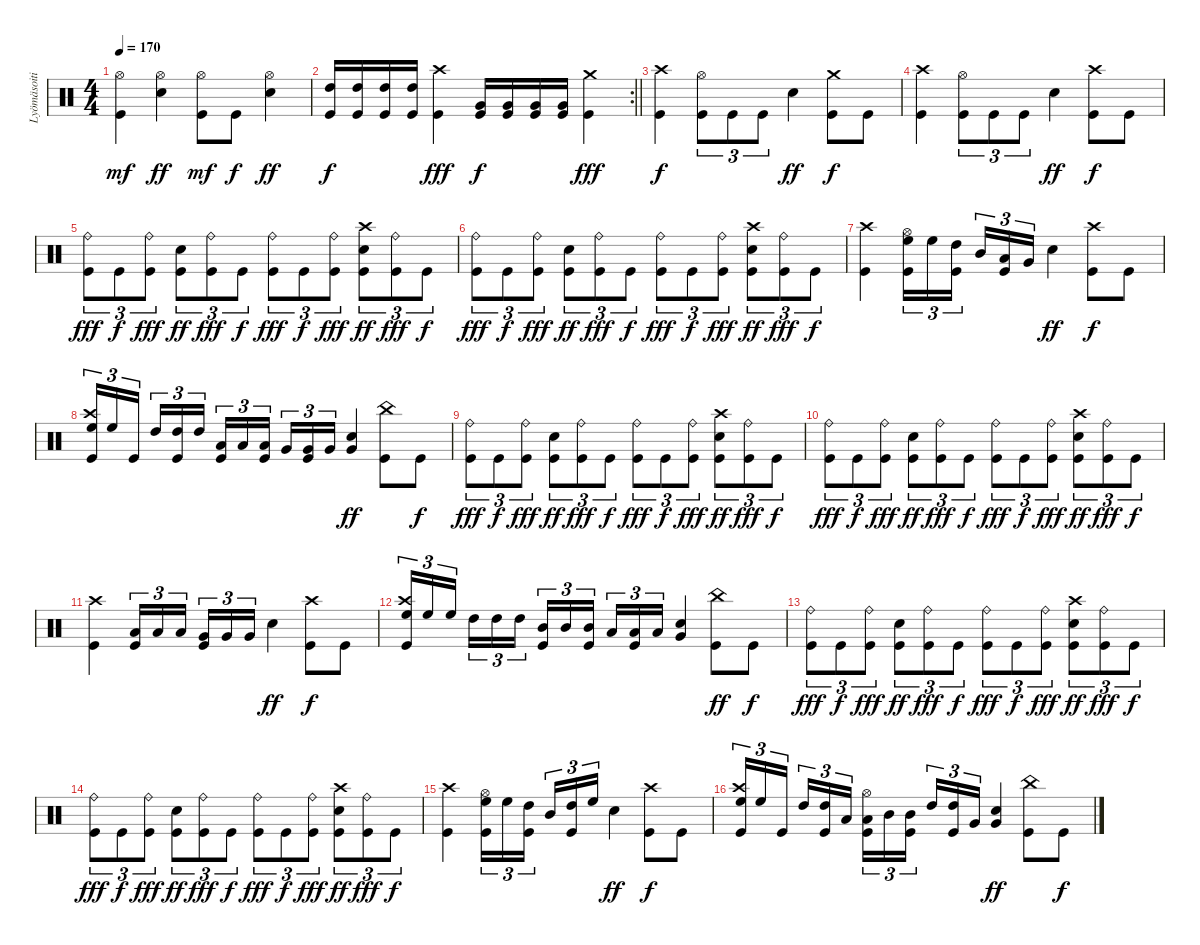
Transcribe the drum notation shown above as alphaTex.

\track ("Lyömäsoitin" "Lyömäsoiti") {instrument percussion}
\staff {score}
\articulation defaults
\ts (4 4)
\tempo 170
\clef neutral
\ks c
("Hi-Hat (open)" "Kick (hit)").4{dy mf} ("Hi-Hat (open)" "Electric Snare (hit)").4{dy ff} ("Hi-Hat (open)" "Kick (hit)").8{dy mf} "Kick (hit)".8{dy f} ("Hi-Hat (open)" "Electric Snare (hit)").4{dy ff} |
\rc 2
\barLineRight lightlight
("High Tom (hit)" "Kick (hit)").16{dy f} ("High Tom (hit)" "Kick (hit)").16 ("High Tom (hit)" "Kick (hit)").16 ("High Tom (hit)" "Kick (hit)").16 ("Crash high (hit)" "Kick (hit)").4{dy fff} ("Very Low Tom (hit)" "Kick (hit)").16{dy f} ("Very Low Tom (hit)" "Kick (hit)").16 ("Very Low Tom (hit)" "Kick (hit)").16 ("Very Low Tom (hit)" "Kick (hit)").16 ("Crash medium (hit)" "Kick (hit)").4{dy fff} |
\section ("" "")
("Crash high (hit)" "Kick (hit)").4{dy f} ("Hi-Hat (open)" "Kick (hit)").8{tu (3 2)} "Kick (hit)".8{tu (3 2)} "Kick (hit)".8{tu (3 2)} "Electric Snare (hit)".4{dy ff} ("Crash medium (hit)" "Kick (hit)").8{dy f} "Kick (hit)".8 |
("Crash high (hit)" "Kick (hit)").4 ("Hi-Hat (open)" "Kick (hit)").8{tu (3 2)} "Kick (hit)".8{tu (3 2)} "Kick (hit)".8{tu (3 2)} "Electric Snare (hit)".4{dy ff} ("Crash high (hit)" "Kick (hit)").8{dy f} "Kick (hit)".8 |
("Ride (bell)" "Kick (hit)").8{tu (3 2) dy fff} "Kick (hit)".8{tu (3 2) dy f} ("Ride (bell)" "Kick (hit)").8{tu (3 2) dy fff} ("Electric Snare (hit)" "Kick (hit)").8{tu (3 2) dy ff} ("Ride (bell)" "Kick (hit)").8{tu (3 2) dy fff} "Kick (hit)".8{tu (3 2) dy f} ("Ride (bell)" "Kick (hit)").8{tu (3 2) dy fff} "Kick (hit)".8{tu (3 2) dy f} ("Ride (bell)" "Kick (hit)").8{tu (3 2) dy fff} ("Crash high (hit)" "Electric Snare (hit)" "Kick (hit)").8{tu (3 2) dy ff} ("Ride (bell)" "Kick (hit)").8{tu (3 2) dy fff} "Kick (hit)".8{tu (3 2) dy f} |
("Ride (bell)" "Kick (hit)").8{tu (3 2) dy fff} "Kick (hit)".8{tu (3 2) dy f} ("Ride (bell)" "Kick (hit)").8{tu (3 2) dy fff} ("Electric Snare (hit)" "Kick (hit)").8{tu (3 2) dy ff} ("Ride (bell)" "Kick (hit)").8{tu (3 2) dy fff} "Kick (hit)".8{tu (3 2) dy f} ("Ride (bell)" "Kick (hit)").8{tu (3 2) dy fff} "Kick (hit)".8{tu (3 2) dy f} ("Ride (bell)" "Kick (hit)").8{tu (3 2) dy fff} ("Crash high (hit)" "Electric Snare (hit)" "Kick (hit)").8{tu (3 2) dy ff} ("Ride (bell)" "Kick (hit)").8{tu (3 2) dy fff} "Kick (hit)".8{tu (3 2) dy f} |
("Crash high (hit)" "Kick (hit)").4 ("Hi-Hat (open)" "High Floor Tom (hit)" "Kick (hit)").16{tu (3 2)} "High Floor Tom (hit)".16{tu (3 2)} ("High Tom (hit)" "Kick (hit)").16{tu (3 2) beam splitsecondary} "Mid Tom (hit)".16{tu (3 2)} ("Low Tom (hit)" "Kick (hit)").16{tu (3 2)} "Very Low Tom (hit)".16{tu (3 2)} "Electric Snare (hit)".4{dy ff} ("Crash high (hit)" "Kick (hit)").8{dy f} "Kick (hit)".8 |
("Crash high (hit)" "High Floor Tom (hit)" "Kick (hit)").16{tu (3 2)} "High Floor Tom (hit)".16{tu (3 2)} "Kick (hit)".16{tu (3 2) beam splitsecondary} "High Tom (hit)".16{tu (3 2)} ("High Tom (hit)" "Kick (hit)").16{tu (3 2)} "High Tom (hit)".16{tu (3 2)} ("Low Tom (hit)" "Kick (hit)").16{tu (3 2)} "Low Tom (hit)".16{tu (3 2)} ("Low Tom (hit)" "Kick (hit)").16{tu (3 2) beam splitsecondary} "Very Low Tom (hit)".16{tu (3 2)} ("Very Low Tom (hit)" "Kick (hit)").16{tu (3 2)} "Very Low Tom (hit)".16{tu (3 2)} ("Very Low Tom (hit)" "Electric Snare (hit)").4{dy ff} ("China (hit)" "Kick (hit)").8 "Kick (hit)".8{dy f} |
("Ride (bell)" "Kick (hit)").8{tu (3 2) dy fff} "Kick (hit)".8{tu (3 2) dy f} ("Ride (bell)" "Kick (hit)").8{tu (3 2) dy fff} ("Electric Snare (hit)" "Kick (hit)").8{tu (3 2) dy ff} ("Ride (bell)" "Kick (hit)").8{tu (3 2) dy fff} "Kick (hit)".8{tu (3 2) dy f} ("Ride (bell)" "Kick (hit)").8{tu (3 2) dy fff} "Kick (hit)".8{tu (3 2) dy f} ("Ride (bell)" "Kick (hit)").8{tu (3 2) dy fff} ("Crash high (hit)" "Electric Snare (hit)" "Kick (hit)").8{tu (3 2) dy ff} ("Ride (bell)" "Kick (hit)").8{tu (3 2) dy fff} "Kick (hit)".8{tu (3 2) dy f} |
("Ride (bell)" "Kick (hit)").8{tu (3 2) dy fff} "Kick (hit)".8{tu (3 2) dy f} ("Ride (bell)" "Kick (hit)").8{tu (3 2) dy fff} ("Electric Snare (hit)" "Kick (hit)").8{tu (3 2) dy ff} ("Ride (bell)" "Kick (hit)").8{tu (3 2) dy fff} "Kick (hit)".8{tu (3 2) dy f} ("Ride (bell)" "Kick (hit)").8{tu (3 2) dy fff} "Kick (hit)".8{tu (3 2) dy f} ("Ride (bell)" "Kick (hit)").8{tu (3 2) dy fff} ("Crash high (hit)" "Electric Snare (hit)" "Kick (hit)").8{tu (3 2) dy ff} ("Ride (bell)" "Kick (hit)").8{tu (3 2) dy fff} "Kick (hit)".8{tu (3 2) dy f} |
("Crash high (hit)" "Kick (hit)").4 ("Low Tom (hit)" "Kick (hit)").16{tu (3 2)} "Low Tom (hit)".16{tu (3 2)} "Low Tom (hit)".16{tu (3 2) beam splitsecondary} ("Very Low Tom (hit)" "Kick (hit)").16{tu (3 2)} "Very Low Tom (hit)".16{tu (3 2)} "Very Low Tom (hit)".16{tu (3 2)} "Electric Snare (hit)".4{dy ff} ("Crash high (hit)" "Kick (hit)").8{dy f} "Kick (hit)".8 |
("Crash high (hit)" "High Floor Tom (hit)" "Kick (hit)").16{tu (3 2)} "High Floor Tom (hit)".16{tu (3 2)} "High Floor Tom (hit)".16{tu (3 2) beam splitsecondary} "High Tom (hit)".16{tu (3 2)} "High Tom (hit)".16{tu (3 2)} "High Tom (hit)".16{tu (3 2)} ("Mid Tom (hit)" "Kick (hit)").16{tu (3 2)} "Mid Tom (hit)".16{tu (3 2)} ("Mid Tom (hit)" "Kick (hit)").16{tu (3 2) beam splitsecondary} "Low Tom (hit)".16{tu (3 2)} ("Low Tom (hit)" "Kick (hit)").16{tu (3 2)} "Low Tom (hit)".16{tu (3 2)} ("Very Low Tom (hit)" "Electric Snare (hit)").4 ("China (hit)" "Kick (hit)").8{dy ff} "Kick (hit)".8{dy f} |
("Ride (bell)" "Kick (hit)").8{tu (3 2) dy fff} "Kick (hit)".8{tu (3 2) dy f} ("Ride (bell)" "Kick (hit)").8{tu (3 2) dy fff} ("Electric Snare (hit)" "Kick (hit)").8{tu (3 2) dy ff} ("Ride (bell)" "Kick (hit)").8{tu (3 2) dy fff} "Kick (hit)".8{tu (3 2) dy f} ("Ride (bell)" "Kick (hit)").8{tu (3 2) dy fff} "Kick (hit)".8{tu (3 2) dy f} ("Ride (bell)" "Kick (hit)").8{tu (3 2) dy fff} ("Crash high (hit)" "Electric Snare (hit)" "Kick (hit)").8{tu (3 2) dy ff} ("Ride (bell)" "Kick (hit)").8{tu (3 2) dy fff} "Kick (hit)".8{tu (3 2) dy f} |
("Ride (bell)" "Kick (hit)").8{tu (3 2) dy fff} "Kick (hit)".8{tu (3 2) dy f} ("Ride (bell)" "Kick (hit)").8{tu (3 2) dy fff} ("Electric Snare (hit)" "Kick (hit)").8{tu (3 2) dy ff} ("Ride (bell)" "Kick (hit)").8{tu (3 2) dy fff} "Kick (hit)".8{tu (3 2) dy f} ("Ride (bell)" "Kick (hit)").8{tu (3 2) dy fff} "Kick (hit)".8{tu (3 2) dy f} ("Ride (bell)" "Kick (hit)").8{tu (3 2) dy fff} ("Crash high (hit)" "Electric Snare (hit)" "Kick (hit)").8{tu (3 2) dy ff} ("Ride (bell)" "Kick (hit)").8{tu (3 2) dy fff} "Kick (hit)".8{tu (3 2) dy f} |
("Crash high (hit)" "Kick (hit)").4 ("Hi-Hat (open)" "High Floor Tom (hit)" "Kick (hit)").16{tu (3 2)} "High Floor Tom (hit)".16{tu (3 2)} ("High Tom (hit)" "Kick (hit)").16{tu (3 2) beam splitsecondary} "Mid Tom (hit)".16{tu (3 2)} ("High Tom (hit)" "Kick (hit)").16{tu (3 2)} "High Floor Tom (hit)".16{tu (3 2)} "Electric Snare (hit)".4{dy ff} ("Crash high (hit)" "Kick (hit)").8{dy f} "Kick (hit)".8 |
("Crash high (hit)" "High Floor Tom (hit)" "Kick (hit)").16{tu (3 2)} "High Floor Tom (hit)".16{tu (3 2)} "Kick (hit)".16{tu (3 2) beam splitsecondary} "High Tom (hit)".16{tu (3 2)} ("High Tom (hit)" "Kick (hit)").16{tu (3 2)} "Low Tom (hit)".16{tu (3 2)} ("Hi-Hat (open)" "Low Tom (hit)" "Kick (hit)").16{tu (3 2)} "Mid Tom (hit)".16{tu (3 2)} ("Mid Tom (hit)" "Kick (hit)").16{tu (3 2) beam splitsecondary} "High Tom (hit)".16{tu (3 2)} ("High Tom (hit)" "Kick (hit)").16{tu (3 2)} "Very Low Tom (hit)".16{tu (3 2)} ("Very Low Tom (hit)" "Electric Snare (hit)").4{dy ff} ("China (hit)" "Kick (hit)").8 "Kick (hit)".8{dy f}
